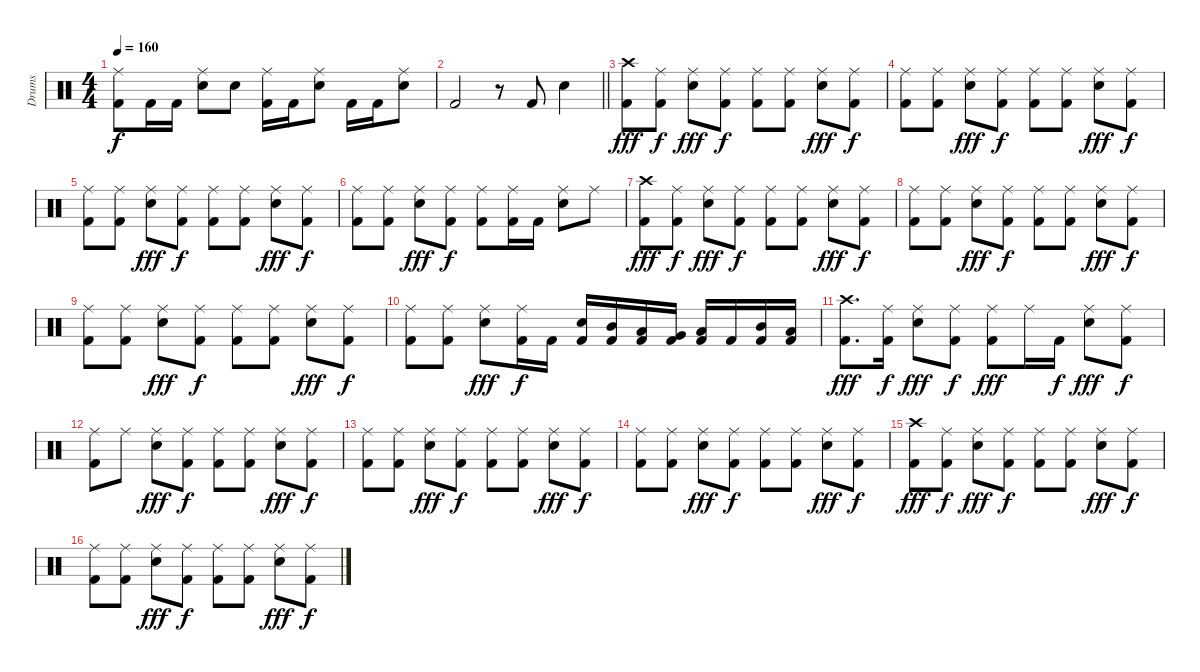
\track ("Drums" "Drums") {instrument percussion}
\staff {score}
\articulation defaults
\ts (4 4)
\tempo 160
\clef neutral
\ks c
("Kick (hit) 2" "Ride (middle)").8{dy f} "Kick (hit) 2".16 "Kick (hit) 2".16 ("Snare (hit) 2" "Ride (middle)").8 "Snare (hit) 2".8 ("Kick (hit) 2" "Ride (middle)").16 "Kick (hit) 2".16 ("Snare (hit) 2" "Ride (middle)").8 "Kick (hit) 2".16 "Kick (hit) 2".16 ("Snare (hit) 2" "Ride (middle)").8 |
\barLineRight lightlight "Kick (hit) 2".2
r.8 "Kick (hit) 2".8 "Snare (hit) 2".4 |
("Kick (hit) 2" "Crash high (hit)").8{dy fff} ("Kick (hit) 2" "Ride (middle)").8{dy f} ("Snare (hit) 2" "Ride (middle)").8{dy fff} ("Kick (hit) 2" "Ride (middle)").8{dy f} ("Kick (hit) 2" "Ride (middle)").8 ("Kick (hit) 2" "Ride (middle)").8 ("Snare (hit) 2" "Ride (middle)").8{dy fff} ("Kick (hit) 2" "Ride (middle)").8{dy f} |
("Kick (hit) 2" "Ride (middle)").8 ("Kick (hit) 2" "Ride (middle)").8 ("Snare (hit) 2" "Ride (middle)").8{dy fff} ("Kick (hit) 2" "Ride (middle)").8{dy f} ("Kick (hit) 2" "Ride (middle)").8 ("Kick (hit) 2" "Ride (middle)").8 ("Snare (hit) 2" "Ride (middle)").8{dy fff} ("Kick (hit) 2" "Ride (middle)").8{dy f} |
("Kick (hit) 2" "Ride (middle)").8 ("Kick (hit) 2" "Ride (middle)").8 ("Snare (hit) 2" "Ride (middle)").8{dy fff} ("Kick (hit) 2" "Ride (middle)").8{dy f} ("Kick (hit) 2" "Ride (middle)").8 ("Kick (hit) 2" "Ride (middle)").8 ("Snare (hit) 2" "Ride (middle)").8{dy fff} ("Kick (hit) 2" "Ride (middle)").8{dy f} |
("Kick (hit) 2" "Ride (middle)").8 ("Kick (hit) 2" "Ride (middle)").8 ("Snare (hit) 2" "Ride (middle)").8{dy fff} ("Kick (hit) 2" "Ride (middle)").8{dy f} ("Kick (hit) 2" "Ride (middle)").8 ("Kick (hit) 2" "Ride (middle)").16 "Kick (hit) 2".16 ("Snare (hit) 2" "Ride (middle)").8 "Ride (middle)".8 |
("Kick (hit) 2" "Crash high (hit)").8{dy fff} ("Kick (hit) 2" "Ride (middle)").8{dy f} ("Snare (hit) 2" "Ride (middle)").8{dy fff} ("Kick (hit) 2" "Ride (middle)").8{dy f} ("Kick (hit) 2" "Ride (middle)").8 ("Kick (hit) 2" "Ride (middle)").8 ("Snare (hit) 2" "Ride (middle)").8{dy fff} ("Kick (hit) 2" "Ride (middle)").8{dy f} |
("Kick (hit) 2" "Ride (middle)").8 ("Kick (hit) 2" "Ride (middle)").8 ("Snare (hit) 2" "Ride (middle)").8{dy fff} ("Kick (hit) 2" "Ride (middle)").8{dy f} ("Kick (hit) 2" "Ride (middle)").8 ("Kick (hit) 2" "Ride (middle)").8 ("Snare (hit) 2" "Ride (middle)").8{dy fff} ("Kick (hit) 2" "Ride (middle)").8{dy f} |
("Kick (hit) 2" "Ride (middle)").8 ("Kick (hit) 2" "Ride (middle)").8 ("Snare (hit) 2" "Ride (middle)").8{dy fff} ("Kick (hit) 2" "Ride (middle)").8{dy f} ("Kick (hit) 2" "Ride (middle)").8 ("Kick (hit) 2" "Ride (middle)").8 ("Snare (hit) 2" "Ride (middle)").8{dy fff} ("Kick (hit) 2" "Ride (middle)").8{dy f} |
("Kick (hit) 2" "Ride (middle)").8 ("Kick (hit) 2" "Ride (middle)").8 ("Snare (hit) 2" "Ride (middle)").8{dy fff} ("Kick (hit) 2" "Ride (middle)").16{dy f} "Kick (hit) 2".16 ("Kick (hit) 2" "Snare (hit) 2").16 ("Kick (hit) 2" "Mid Tom (hit)").16 ("Kick (hit) 2" "Low Tom (hit)").16 ("Kick (hit) 2" "Very Low Tom (hit)").16 ("Kick (hit) 2" "Low Floor Tom (hit)").16 "Kick (hit) 2".16 ("Kick (hit) 2" "Mid Tom (hit)").16 ("Kick (hit) 2" "Low Tom (hit)").16 |
("Kick (hit) 2" "Crash high (hit)").8{d dy fff} ("Kick (hit) 2" "Ride (middle)").16{dy f} ("Snare (hit) 2" "Ride (middle)").8{dy fff} ("Kick (hit) 2" "Ride (middle)").8{dy f} ("Kick (hit) 2" "Ride (middle)").8{dy fff} "Ride (middle)".16 "Kick (hit) 2".16{dy f} ("Snare (hit) 2" "Ride (middle)").8{dy fff} ("Kick (hit) 2" "Ride (middle)").8{dy f} |
("Kick (hit) 2" "Ride (middle)").8 "Ride (middle)".8 ("Snare (hit) 2" "Ride (middle)").8{dy fff} ("Kick (hit) 2" "Ride (middle)").8{dy f} ("Kick (hit) 2" "Ride (middle)").8 ("Kick (hit) 2" "Ride (middle)").8 ("Snare (hit) 2" "Ride (middle)").8{dy fff} ("Kick (hit) 2" "Ride (middle)").8{dy f} |
("Kick (hit) 2" "Ride (middle)").8 ("Kick (hit) 2" "Ride (middle)").8 ("Snare (hit) 2" "Ride (middle)").8{dy fff} ("Kick (hit) 2" "Ride (middle)").8{dy f} ("Kick (hit) 2" "Ride (middle)").8 ("Kick (hit) 2" "Ride (middle)").8 ("Snare (hit) 2" "Ride (middle)").8{dy fff} ("Kick (hit) 2" "Ride (middle)").8{dy f} |
("Kick (hit) 2" "Ride (middle)").8 ("Kick (hit) 2" "Ride (middle)").8 ("Snare (hit) 2" "Ride (middle)").8{dy fff} ("Kick (hit) 2" "Ride (middle)").8{dy f} ("Kick (hit) 2" "Ride (middle)").8 ("Kick (hit) 2" "Ride (middle)").8 ("Snare (hit) 2" "Ride (middle)").8{dy fff} ("Kick (hit) 2" "Ride (middle)").8{dy f} |
("Kick (hit) 2" "Crash high (hit)").8{dy fff} ("Kick (hit) 2" "Ride (middle)").8{dy f} ("Snare (hit) 2" "Ride (middle)").8{dy fff} ("Kick (hit) 2" "Ride (middle)").8{dy f} ("Kick (hit) 2" "Ride (middle)").8 ("Kick (hit) 2" "Ride (middle)").8 ("Snare (hit) 2" "Ride (middle)").8{dy fff} ("Kick (hit) 2" "Ride (middle)").8{dy f} |
("Kick (hit) 2" "Ride (middle)").8 ("Kick (hit) 2" "Ride (middle)").8 ("Snare (hit) 2" "Ride (middle)").8{dy fff} ("Kick (hit) 2" "Ride (middle)").8{dy f} ("Kick (hit) 2" "Ride (middle)").8 ("Kick (hit) 2" "Ride (middle)").8 ("Snare (hit) 2" "Ride (middle)").8{dy fff} ("Kick (hit) 2" "Ride (middle)").8{dy f}
